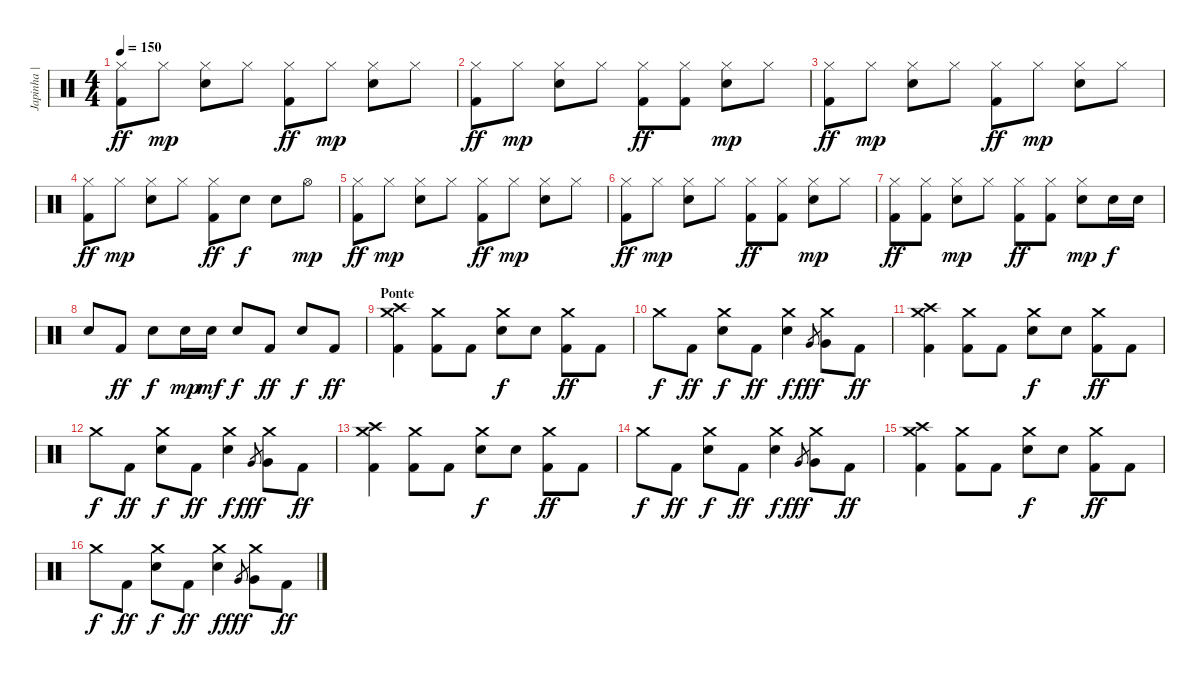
\track ("Japinha | Bateria" "Japinha | ") {instrument percussion}
\staff {score}
\articulation defaults
\ts (4 4)
\tempo 150
\clef neutral
\ks c
("Hi-Hat (closed)" "Kick (hit) 2").8{dy ff} "Hi-Hat (closed)".8{dy mp} ("Hi-Hat (closed)" "Electric Snare (hit)").8 "Hi-Hat (closed)".8 ("Hi-Hat (closed)" "Kick (hit) 2").8{dy ff} "Hi-Hat (closed)".8{dy mp} ("Hi-Hat (closed)" "Electric Snare (hit)").8 "Hi-Hat (closed)".8 |
("Hi-Hat (closed)" "Kick (hit) 2").8{dy ff} "Hi-Hat (closed)".8{dy mp} ("Hi-Hat (closed)" "Electric Snare (hit)").8 "Hi-Hat (closed)".8 ("Hi-Hat (closed)" "Kick (hit) 2").8{dy ff} ("Hi-Hat (closed)" "Kick (hit) 2").8 ("Hi-Hat (closed)" "Electric Snare (hit)").8{dy mp} "Hi-Hat (closed)".8 |
("Hi-Hat (closed)" "Kick (hit) 2").8{dy ff} "Hi-Hat (closed)".8{dy mp} ("Hi-Hat (closed)" "Electric Snare (hit)").8 "Hi-Hat (closed)".8 ("Hi-Hat (closed)" "Kick (hit) 2").8{dy ff} "Hi-Hat (closed)".8{dy mp} ("Hi-Hat (closed)" "Electric Snare (hit)").8 "Hi-Hat (closed)".8 |
("Hi-Hat (closed)" "Kick (hit) 2").8{dy ff} "Hi-Hat (closed)".8{dy mp} ("Hi-Hat (closed)" "Electric Snare (hit)").8 "Hi-Hat (closed)".8 ("Hi-Hat (closed)" "Kick (hit) 2").8{dy ff} "Electric Snare (hit)".8{dy f} "Electric Snare (hit)".8 "Hi-Hat (open)".8{dy mp} |
("Hi-Hat (closed)" "Kick (hit) 2").8{dy ff} "Hi-Hat (closed)".8{dy mp} ("Hi-Hat (closed)" "Electric Snare (hit)").8 "Hi-Hat (closed)".8 ("Hi-Hat (closed)" "Kick (hit) 2").8{dy ff} "Hi-Hat (closed)".8{dy mp} ("Hi-Hat (closed)" "Electric Snare (hit)").8 "Hi-Hat (closed)".8 |
("Hi-Hat (closed)" "Kick (hit) 2").8{dy ff} "Hi-Hat (closed)".8{dy mp} ("Hi-Hat (closed)" "Electric Snare (hit)").8 "Hi-Hat (closed)".8 ("Hi-Hat (closed)" "Kick (hit) 2").8{dy ff} ("Hi-Hat (closed)" "Kick (hit) 2").8 ("Hi-Hat (closed)" "Electric Snare (hit)").8{dy mp} "Hi-Hat (closed)".8 |
("Hi-Hat (closed)" "Kick (hit) 2").8{dy ff} ("Hi-Hat (closed)" "Kick (hit) 2").8 ("Hi-Hat (closed)" "Electric Snare (hit)").8{dy mp} "Hi-Hat (closed)".8 ("Hi-Hat (closed)" "Kick (hit) 2").8{dy ff} ("Hi-Hat (closed)" "Kick (hit) 2").8 ("Hi-Hat (closed)" "Electric Snare (hit)").8{dy mp} "Electric Snare (hit)".16{dy f} "Electric Snare (hit)".16 |
"Electric Snare (hit)".8 "Kick (hit) 2".8{dy ff} "Electric Snare (hit)".8{dy f} "Electric Snare (hit)".16{dy mp} "Electric Snare (hit)".16{dy mf} "Electric Snare (hit)".8{dy f} "Kick (hit) 2".8{dy ff} "Electric Snare (hit)".8{dy f} "Kick (hit) 2".8{dy ff} |
\section ("" "Ponte")
("Crash medium (hit)" "Crash high (hit)" "Kick (hit) 2").4 ("Crash medium (hit)" "Kick (hit) 2").8 "Kick (hit) 2".8 ("Crash medium (hit)" "Electric Snare (hit)").8{dy f} "Electric Snare (hit)".8 ("Crash medium (hit)" "Kick (hit) 2").8{dy ff} "Kick (hit) 2".8 |
"Crash medium (hit)".8{dy f} "Kick (hit) 2".8{dy ff} ("Crash medium (hit)" "Electric Snare (hit)").8{dy f} "Kick (hit) 2".8{dy ff} ("Crash medium (hit)" "Electric Snare (hit)").4{dy f} "Very Low Tom (hit)".8{gr dy fff} ("Crash medium (hit)" "Very Low Tom (hit)").8 "Kick (hit) 2".8{dy ff} |
("Crash medium (hit)" "Crash high (hit)" "Kick (hit) 2").4 ("Crash medium (hit)" "Kick (hit) 2").8 "Kick (hit) 2".8 ("Crash medium (hit)" "Electric Snare (hit)").8{dy f} "Electric Snare (hit)".8 ("Crash medium (hit)" "Kick (hit) 2").8{dy ff} "Kick (hit) 2".8 |
"Crash medium (hit)".8{dy f} "Kick (hit) 2".8{dy ff} ("Crash medium (hit)" "Electric Snare (hit)").8{dy f} "Kick (hit) 2".8{dy ff} ("Crash medium (hit)" "Electric Snare (hit)").4{dy f} "Very Low Tom (hit)".8{gr dy fff} ("Crash medium (hit)" "Very Low Tom (hit)").8 "Kick (hit) 2".8{dy ff} |
("Crash medium (hit)" "Crash high (hit)" "Kick (hit) 2").4 ("Crash medium (hit)" "Kick (hit) 2").8 "Kick (hit) 2".8 ("Crash medium (hit)" "Electric Snare (hit)").8{dy f} "Electric Snare (hit)".8 ("Crash medium (hit)" "Kick (hit) 2").8{dy ff} "Kick (hit) 2".8 |
"Crash medium (hit)".8{dy f} "Kick (hit) 2".8{dy ff} ("Crash medium (hit)" "Electric Snare (hit)").8{dy f} "Kick (hit) 2".8{dy ff} ("Crash medium (hit)" "Electric Snare (hit)").4{dy f} "Very Low Tom (hit)".8{gr dy fff} ("Crash medium (hit)" "Very Low Tom (hit)").8 "Kick (hit) 2".8{dy ff} |
("Crash medium (hit)" "Crash high (hit)" "Kick (hit) 2").4 ("Crash medium (hit)" "Kick (hit) 2").8 "Kick (hit) 2".8 ("Crash medium (hit)" "Electric Snare (hit)").8{dy f} "Electric Snare (hit)".8 ("Crash medium (hit)" "Kick (hit) 2").8{dy ff} "Kick (hit) 2".8 |
"Crash medium (hit)".8{dy f} "Kick (hit) 2".8{dy ff} ("Crash medium (hit)" "Electric Snare (hit)").8{dy f} "Kick (hit) 2".8{dy ff} ("Crash medium (hit)" "Electric Snare (hit)").4{dy f} "Very Low Tom (hit)".8{gr dy fff} ("Crash medium (hit)" "Very Low Tom (hit)").8 "Kick (hit) 2".8{dy ff}
